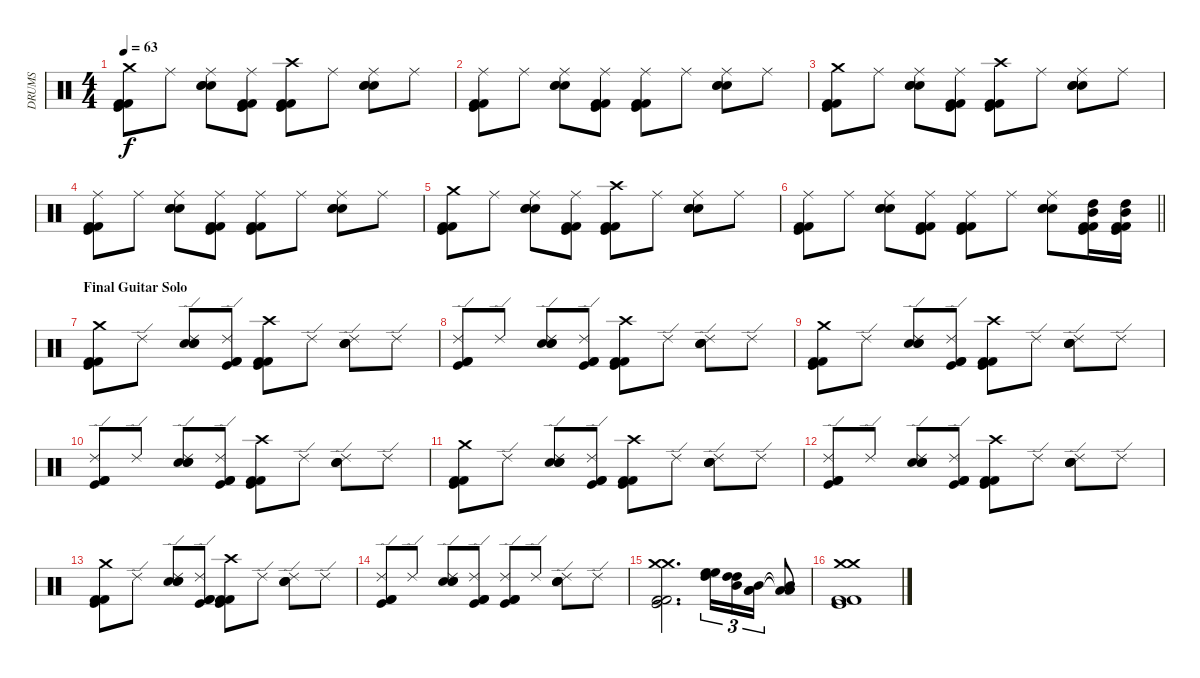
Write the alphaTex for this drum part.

\track ("DRUMS" "DRUMS") {instrument percussion}
\staff {score}
\articulation defaults
\ts (4 4)
\tempo 63
\clef neutral
\ks c
("Crash medium (hit)" "Kick (hit) 2" "Kick (hit)" "Kick (hit) 2").8{dy f} "Ride (middle)".8 ("Ride (middle)" "Electric Snare (hit)" "Snare (hit) 2" "Electric Snare (hit)").8 ("Ride (middle)" "Kick (hit) 2" "Kick (hit)" "Kick (hit) 2").8 ("Crash high (hit)" "Kick (hit) 2" "Kick (hit)" "Kick (hit) 2").8 "Ride (middle)".8 ("Ride (middle)" "Electric Snare (hit)" "Snare (hit) 2" "Electric Snare (hit)").8 "Ride (middle)".8 |
("Ride (middle)" "Kick (hit) 2" "Kick (hit)" "Kick (hit) 2").8 "Ride (middle)".8 ("Ride (middle)" "Electric Snare (hit)" "Snare (hit) 2" "Electric Snare (hit)").8 ("Ride (middle)" "Kick (hit) 2" "Kick (hit)" "Kick (hit) 2").8 ("Ride (middle)" "Kick (hit) 2" "Kick (hit)" "Kick (hit) 2").8 "Ride (middle)".8 ("Ride (middle)" "Electric Snare (hit)" "Snare (hit) 2" "Electric Snare (hit)").8 "Ride (middle)".8 |
("Crash medium (hit)" "Kick (hit) 2" "Kick (hit)" "Kick (hit) 2").8 "Ride (middle)".8 ("Ride (middle)" "Electric Snare (hit)" "Snare (hit) 2" "Electric Snare (hit)").8 ("Ride (middle)" "Kick (hit) 2" "Kick (hit)" "Kick (hit) 2").8 ("Crash high (hit)" "Kick (hit) 2" "Kick (hit)" "Kick (hit) 2").8 "Ride (middle)".8 ("Ride (middle)" "Electric Snare (hit)" "Snare (hit) 2" "Electric Snare (hit)").8 "Ride (middle)".8 |
("Ride (middle)" "Kick (hit) 2" "Kick (hit)" "Kick (hit) 2").8 "Ride (middle)".8 ("Ride (middle)" "Electric Snare (hit)" "Snare (hit) 2" "Electric Snare (hit)").8 ("Ride (middle)" "Kick (hit) 2" "Kick (hit)" "Kick (hit) 2").8 ("Ride (middle)" "Kick (hit) 2" "Kick (hit)" "Kick (hit) 2").8 "Ride (middle)".8 ("Ride (middle)" "Electric Snare (hit)" "Snare (hit) 2" "Electric Snare (hit)").8 "Ride (middle)".8 |
("Crash medium (hit)" "Kick (hit) 2" "Kick (hit)" "Kick (hit) 2").8 "Ride (middle)".8 ("Ride (middle)" "Electric Snare (hit)" "Snare (hit) 2" "Electric Snare (hit)").8 ("Ride (middle)" "Kick (hit) 2" "Kick (hit)" "Kick (hit) 2").8 ("Crash high (hit)" "Kick (hit) 2" "Kick (hit)" "Kick (hit) 2").8 "Ride (middle)".8 ("Ride (middle)" "Electric Snare (hit)" "Snare (hit) 2" "Electric Snare (hit)").8 "Ride (middle)".8 |
\barLineRight lightlight
("Ride (middle)" "Kick (hit) 2" "Kick (hit)" "Kick (hit) 2").8 "Ride (middle)".8 ("Ride (middle)" "Electric Snare (hit)" "Snare (hit) 2" "Electric Snare (hit)").8 ("Ride (middle)" "Kick (hit) 2" "Kick (hit)" "Kick (hit) 2").8 ("Ride (middle)" "Kick (hit) 2" "Kick (hit)" "Kick (hit) 2").8 "Ride (middle)".8 ("Ride (middle)" "Electric Snare (hit)" "Snare (hit) 2" "Electric Snare (hit)").8 ("Mid Tom (hit)" "High Tom (hit)" "Kick (hit) 2" "Kick (hit)" "Kick (hit) 2").16{volume 10 balance 4} ("Mid Tom (hit)" "High Tom (hit)" "Kick (hit) 2" "Kick (hit)" "Kick (hit) 2").16{balance 12} |
\section ("" "Final Guitar Solo")
("Crash medium (hit)" "Kick (hit) 2" "Kick (hit)" "Kick (hit) 2").8{volume 8 balance 8} "Ride (edge) 2".8 ("Ride (edge) 2" "Electric Snare (hit)" "Snare (hit) 2" "Electric Snare (hit)").8 ("Ride (edge) 2" "Kick (hit) 2" "Kick (hit)" "Kick (hit) 2").8 ("Crash high (hit)" "Kick (hit) 2" "Kick (hit)" "Kick (hit) 2").8 "Ride (edge) 2".8 ("Ride (edge) 2" "Electric Snare (hit)" "Snare (hit) 2" "Electric Snare (hit)").8 "Ride (edge) 2".8 |
("Ride (edge) 2" "Kick (hit) 2" "Kick (hit)" "Kick (hit) 2").8 "Ride (edge) 2".8 ("Ride (edge) 2" "Electric Snare (hit)" "Snare (hit) 2" "Electric Snare (hit)").8 ("Ride (edge) 2" "Kick (hit) 2" "Kick (hit)" "Kick (hit) 2").8 ("Crash high (hit)" "Kick (hit) 2" "Kick (hit)" "Kick (hit) 2").8 "Ride (edge) 2".8 ("Ride (edge) 2" "Electric Snare (hit)" "Snare (hit) 2" "Electric Snare (hit)").8 "Ride (edge) 2".8 |
("Crash medium (hit)" "Kick (hit) 2" "Kick (hit)" "Kick (hit) 2").8 "Ride (edge) 2".8 ("Ride (edge) 2" "Electric Snare (hit)" "Snare (hit) 2" "Electric Snare (hit)").8 ("Ride (edge) 2" "Kick (hit) 2" "Kick (hit)" "Kick (hit) 2").8 ("Crash high (hit)" "Kick (hit) 2" "Kick (hit)" "Kick (hit) 2").8 "Ride (edge) 2".8 ("Ride (edge) 2" "Electric Snare (hit)" "Snare (hit) 2" "Electric Snare (hit)").8 "Ride (edge) 2".8 |
("Ride (edge) 2" "Kick (hit) 2" "Kick (hit)" "Kick (hit) 2").8 "Ride (edge) 2".8 ("Ride (edge) 2" "Electric Snare (hit)" "Snare (hit) 2" "Electric Snare (hit)").8 ("Ride (edge) 2" "Kick (hit) 2" "Kick (hit)" "Kick (hit) 2").8 ("Crash high (hit)" "Kick (hit) 2" "Kick (hit)" "Kick (hit) 2").8 "Ride (edge) 2".8 ("Ride (edge) 2" "Electric Snare (hit)" "Snare (hit) 2" "Electric Snare (hit)").8 "Ride (edge) 2".8 |
("Crash medium (hit)" "Kick (hit) 2" "Kick (hit)" "Kick (hit) 2").8 "Ride (edge) 2".8 ("Ride (edge) 2" "Electric Snare (hit)" "Snare (hit) 2" "Electric Snare (hit)").8 ("Ride (edge) 2" "Kick (hit) 2" "Kick (hit)" "Kick (hit) 2").8 ("Crash high (hit)" "Kick (hit) 2" "Kick (hit)" "Kick (hit) 2").8 "Ride (edge) 2".8 ("Ride (edge) 2" "Electric Snare (hit)" "Snare (hit) 2" "Electric Snare (hit)").8 "Ride (edge) 2".8 |
("Ride (edge) 2" "Kick (hit) 2" "Kick (hit)" "Kick (hit) 2").8 "Ride (edge) 2".8 ("Ride (edge) 2" "Electric Snare (hit)" "Snare (hit) 2" "Electric Snare (hit)").8 ("Ride (edge) 2" "Kick (hit) 2" "Kick (hit)" "Kick (hit) 2").8 ("Crash high (hit)" "Kick (hit) 2" "Kick (hit)" "Kick (hit) 2").8 "Ride (edge) 2".8 ("Ride (edge) 2" "Electric Snare (hit)" "Snare (hit) 2" "Electric Snare (hit)").8 "Ride (edge) 2".8 |
("Crash medium (hit)" "Kick (hit) 2" "Kick (hit)" "Kick (hit) 2").8 "Ride (edge) 2".8 ("Ride (edge) 2" "Electric Snare (hit)" "Snare (hit) 2" "Electric Snare (hit)").8 ("Ride (edge) 2" "Kick (hit) 2" "Kick (hit)" "Kick (hit) 2").8 ("Crash high (hit)" "Kick (hit) 2" "Kick (hit)" "Kick (hit) 2").8 "Ride (edge) 2".8 ("Ride (edge) 2" "Electric Snare (hit)" "Snare (hit) 2" "Electric Snare (hit)").8 "Ride (edge) 2".8 |
("Ride (edge) 2" "Kick (hit) 2" "Kick (hit)" "Kick (hit) 2").8 "Ride (edge) 2".8 ("Ride (edge) 2" "Electric Snare (hit)" "Snare (hit) 2" "Electric Snare (hit)").8 ("Ride (edge) 2" "Kick (hit) 2" "Kick (hit)" "Kick (hit) 2").8 ("Ride (edge) 2" "Kick (hit) 2" "Kick (hit)" "Kick (hit) 2").8 "Ride (edge) 2".8 ("Ride (edge) 2" "Electric Snare (hit)" "Snare (hit) 2" "Electric Snare (hit)").8 "Ride (edge) 2".8 |
("Crash medium (hit)" "Crash medium (hit)" "Kick (hit) 2" "Kick (hit)" "Kick (hit) 2").2{d} ("High Floor Tom (hit)" "High Floor Tom (hit)" "High Tom (hit)").16{tu (3 2) volume 10 balance 4} ("High Tom (hit)" "High Tom (hit)" "Mid Tom (hit)").16{tu (3 2) balance 8} ("Mid Tom (hit)" "Low Tom (hit)" "Low Tom (hit)").16{tu (3 2) balance 12} ("Mid Tom (hit)"{t} "Low Tom (hit)"{t} "Low Tom (hit)"{t}).8 |
("Crash medium (hit)" "Crash medium (hit)" "Kick (hit) 2" "Kick (hit)" "Kick (hit) 2").1{volume 8 balance 8}
